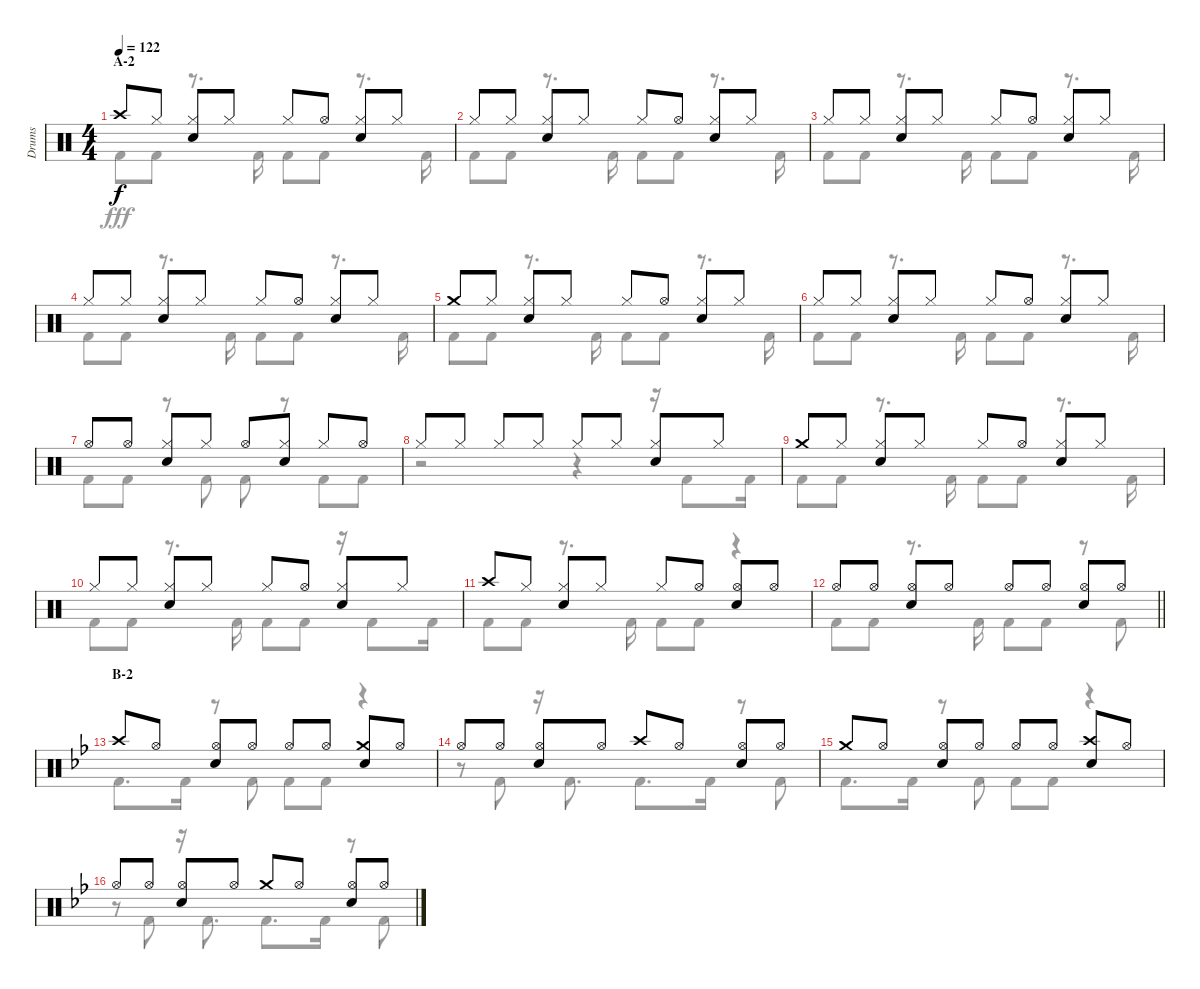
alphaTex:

\track ("Drums" "Drums") {instrument percussion}
\staff {score}
\articulation defaults
\voice
\ts (4 4)
\section ("" "A-2")
\tempo 122
\clef neutral
\ks c "Crash high (hit)".8{dy f} "Hi-Hat (closed)".8
("Hi-Hat (closed)" "Snare (hit) 2").8 "Hi-Hat (closed)".8 "Hi-Hat (closed)".8 "Hi-Hat (open)".8 ("Hi-Hat (closed)" "Snare (hit) 2").8 "Hi-Hat (closed)".8 |
"Hi-Hat (closed)".8 "Hi-Hat (closed)".8 ("Hi-Hat (closed)" "Snare (hit) 2").8 "Hi-Hat (closed)".8 "Hi-Hat (closed)".8 "Hi-Hat (open)".8 ("Hi-Hat (closed)" "Snare (hit) 2").8 "Hi-Hat (closed)".8 |
"Hi-Hat (closed)".8 "Hi-Hat (closed)".8 ("Hi-Hat (closed)" "Snare (hit) 2").8 "Hi-Hat (closed)".8 "Hi-Hat (closed)".8 "Hi-Hat (open)".8 ("Hi-Hat (closed)" "Snare (hit) 2").8 "Hi-Hat (closed)".8 |
"Hi-Hat (closed)".8 "Hi-Hat (closed)".8 ("Hi-Hat (closed)" "Snare (hit) 2").8 "Hi-Hat (closed)".8 "Hi-Hat (closed)".8 "Hi-Hat (open)".8 ("Hi-Hat (closed)" "Snare (hit) 2").8 "Hi-Hat (closed)".8 |
"Crash medium (hit)".8 "Hi-Hat (closed)".8 ("Hi-Hat (closed)" "Snare (hit) 2").8 "Hi-Hat (closed)".8 "Hi-Hat (closed)".8 "Hi-Hat (open)".8 ("Hi-Hat (closed)" "Snare (hit) 2").8 "Hi-Hat (closed)".8 |
"Hi-Hat (closed)".8 "Hi-Hat (closed)".8 ("Hi-Hat (closed)" "Snare (hit) 2").8 "Hi-Hat (closed)".8 "Hi-Hat (closed)".8 "Hi-Hat (open)".8 ("Hi-Hat (closed)" "Snare (hit) 2").8 "Hi-Hat (closed)".8 |
"Hi-Hat (open)".8 "Hi-Hat (open)".8 ("Hi-Hat (closed)" "Snare (hit) 2").8 "Hi-Hat (closed)".8 "Hi-Hat (open)".8 ("Hi-Hat (closed)" "Snare (hit) 2").8 "Hi-Hat (closed)".8 "Hi-Hat (open)".8 |
"Hi-Hat (closed)".8 "Hi-Hat (closed)".8 "Hi-Hat (closed)".8 "Hi-Hat (closed)".8 "Hi-Hat (closed)".8 "Hi-Hat (closed)".8 ("Hi-Hat (closed)" "Snare (hit) 2").8 "Hi-Hat (closed)".8 |
"Crash medium (hit)".8 "Hi-Hat (closed)".8 ("Hi-Hat (closed)" "Snare (hit) 2").8 "Hi-Hat (closed)".8 "Hi-Hat (closed)".8 "Hi-Hat (open)".8 ("Hi-Hat (closed)" "Snare (hit) 2").8 "Hi-Hat (closed)".8 |
"Hi-Hat (closed)".8 "Hi-Hat (closed)".8 ("Hi-Hat (closed)" "Snare (hit) 2").8 "Hi-Hat (closed)".8 "Hi-Hat (closed)".8 "Hi-Hat (open)".8 ("Hi-Hat (closed)" "Snare (hit) 2").8 "Hi-Hat (closed)".8 |
"Crash high (hit)".8 "Hi-Hat (closed)".8 ("Hi-Hat (closed)" "Snare (hit) 2").8 "Hi-Hat (closed)".8 "Hi-Hat (closed)".8 "Hi-Hat (open)".8 ("Hi-Hat (open)" "Snare (hit) 2").8 "Hi-Hat (open)".8 |
\barLineRight lightlight "Hi-Hat (open)".8 "Hi-Hat (open)".8
("Hi-Hat (open)" "Snare (hit) 2").8 "Hi-Hat (open)".8 "Hi-Hat (open)".8 "Hi-Hat (open)".8 ("Hi-Hat (open)" "Snare (hit) 2").8 "Hi-Hat (open)".8 |
\section ("" "B-2")
\ks bb "Crash high (hit)".8 "Hi-Hat (open)".8
("Hi-Hat (open)" "Snare (hit) 2").8 "Hi-Hat (open)".8 "Hi-Hat (open)".8 "Hi-Hat (open)".8 ("Crash medium (hit)" "Snare (hit) 2").8 "Hi-Hat (open)".8 |
"Hi-Hat (open)".8 "Hi-Hat (open)".8 ("Hi-Hat (open)" "Snare (hit) 2").8 "Hi-Hat (open)".8 "Crash high (hit)".8 "Hi-Hat (open)".8 ("Hi-Hat (open)" "Snare (hit) 2").8 "Hi-Hat (open)".8 |
"Crash medium (hit)".8 "Hi-Hat (open)".8 ("Hi-Hat (open)" "Snare (hit) 2").8 "Hi-Hat (open)".8 "Hi-Hat (open)".8 "Hi-Hat (open)".8 ("Crash high (hit)" "Snare (hit) 2").8 "Hi-Hat (open)".8 |
"Hi-Hat (open)".8 "Hi-Hat (open)".8 ("Hi-Hat (open)" "Snare (hit) 2").8 "Hi-Hat (open)".8 "Crash medium (hit)".8 "Hi-Hat (open)".8 ("Hi-Hat (open)" "Snare (hit) 2").8 "Hi-Hat (open)".8
\voice
\clef neutral
\ottava regular
\simile none
\ks c "Kick (hit) 2".8{dy fff} "Kick (hit) 2".8
r.8{d} "Kick (hit) 2".16 "Kick (hit) 2".8 "Kick (hit) 2".8 r.8{d} "Kick (hit) 2".16 |
"Kick (hit) 2".8 "Kick (hit) 2".8 r.8{d} "Kick (hit) 2".16 "Kick (hit) 2".8 "Kick (hit) 2".8 r.8{d} "Kick (hit) 2".16 |
"Kick (hit) 2".8 "Kick (hit) 2".8 r.8{d} "Kick (hit) 2".16 "Kick (hit) 2".8 "Kick (hit) 2".8 r.8{d} "Kick (hit) 2".16 |
"Kick (hit) 2".8 "Kick (hit) 2".8 r.8{d} "Kick (hit) 2".16 "Kick (hit) 2".8 "Kick (hit) 2".8 r.8{d} "Kick (hit) 2".16 |
"Kick (hit) 2".8 "Kick (hit) 2".8 r.8{d} "Kick (hit) 2".16 "Kick (hit) 2".8 "Kick (hit) 2".8 r.8{d} "Kick (hit) 2".16 |
"Kick (hit) 2".8 "Kick (hit) 2".8 r.8{d} "Kick (hit) 2".16 "Kick (hit) 2".8 "Kick (hit) 2".8 r.8{d} "Kick (hit) 2".16 |
"Kick (hit) 2".8 "Kick (hit) 2".8 r.8 "Kick (hit) 2".8 "Kick (hit) 2".8 r.8 "Kick (hit) 2".8 "Kick (hit) 2".8 |
r.2 r.4 r.16 "Kick (hit) 2".8 "Kick (hit) 2".16 |
"Kick (hit) 2".8 "Kick (hit) 2".8 r.8{d} "Kick (hit) 2".16 "Kick (hit) 2".8 "Kick (hit) 2".8 r.8{d} "Kick (hit) 2".16 |
"Kick (hit) 2".8 "Kick (hit) 2".8 r.8{d} "Kick (hit) 2".16 "Kick (hit) 2".8 "Kick (hit) 2".8 r.16 "Kick (hit) 2".8 "Kick (hit) 2".16 |
"Kick (hit) 2".8 "Kick (hit) 2".8 r.8{d} "Kick (hit) 2".16 "Kick (hit) 2".8 "Kick (hit) 2".8 r.4 |
\barLineRight lightlight "Kick (hit) 2".8 "Kick (hit) 2".8
r.8{d} "Kick (hit) 2".16 "Kick (hit) 2".8 "Kick (hit) 2".8 r.8 "Kick (hit) 2".8 |
\ks bb "Kick (hit) 2".8{d} "Kick (hit) 2".16
r.8 "Kick (hit) 2".8 "Kick (hit) 2".8 "Kick (hit) 2".8 r.4 |
r.8 "Kick (hit) 2".8 r.16 "Kick (hit) 2".8{d} "Kick (hit) 2".8{d} "Kick (hit) 2".16 r.8 "Kick (hit) 2".8 |
"Kick (hit) 2".8{d} "Kick (hit) 2".16 r.8 "Kick (hit) 2".8 "Kick (hit) 2".8 "Kick (hit) 2".8 r.4 |
r.8 "Kick (hit) 2".8 r.16 "Kick (hit) 2".8{d} "Kick (hit) 2".8{d} "Kick (hit) 2".16 r.8 "Kick (hit) 2".8
